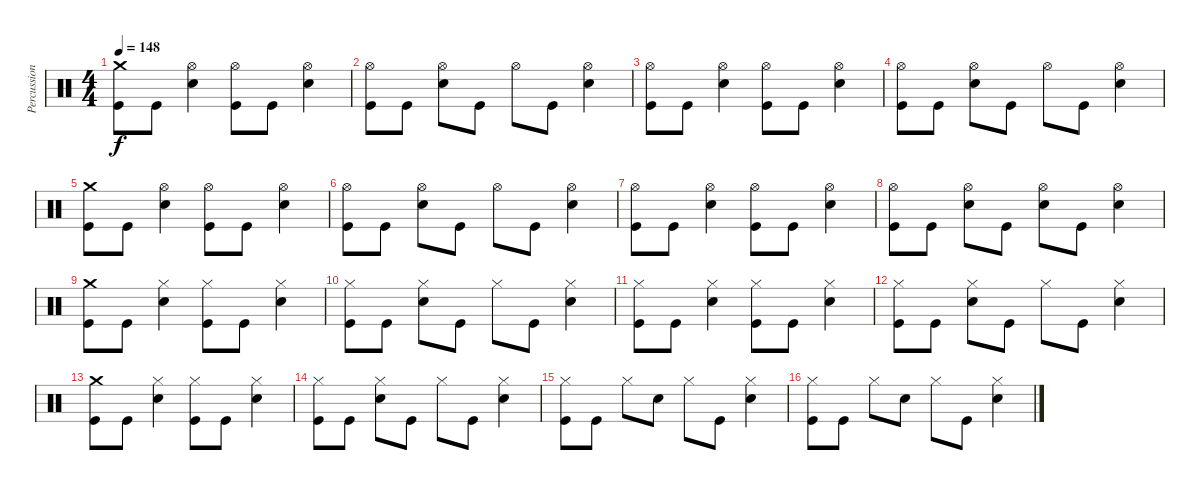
\track ("Percussion" "Percussion") {instrument percussion}
\staff {score}
\articulation defaults
\ts (4 4)
\tempo 148
\clef neutral
\ks c
("Crash medium (hit)" "Kick (hit)").8{dy f} "Kick (hit)".8 ("Hi-Hat (open)" "Electric Snare (hit)").4 ("Hi-Hat (open)" "Kick (hit)").8 "Kick (hit)".8 ("Hi-Hat (open)" "Electric Snare (hit)").4 |
("Hi-Hat (open)" "Kick (hit)").8 "Kick (hit)".8 ("Hi-Hat (open)" "Electric Snare (hit)").8 "Kick (hit)".8 "Hi-Hat (open)".8 "Kick (hit)".8 ("Hi-Hat (open)" "Electric Snare (hit)").4 |
("Hi-Hat (open)" "Kick (hit)").8 "Kick (hit)".8 ("Hi-Hat (open)" "Electric Snare (hit)").4 ("Hi-Hat (open)" "Kick (hit)").8 "Kick (hit)".8 ("Hi-Hat (open)" "Electric Snare (hit)").4 |
("Hi-Hat (open)" "Kick (hit)").8 "Kick (hit)".8 ("Hi-Hat (open)" "Electric Snare (hit)").8 "Kick (hit)".8 "Hi-Hat (open)".8 "Kick (hit)".8 ("Hi-Hat (open)" "Electric Snare (hit)").4 |
("Crash medium (hit)" "Kick (hit)").8 "Kick (hit)".8 ("Hi-Hat (open)" "Electric Snare (hit)").4 ("Hi-Hat (open)" "Kick (hit)").8 "Kick (hit)".8 ("Hi-Hat (open)" "Electric Snare (hit)").4 |
("Hi-Hat (open)" "Kick (hit)").8 "Kick (hit)".8 ("Hi-Hat (open)" "Electric Snare (hit)").8 "Kick (hit)".8 "Hi-Hat (open)".8 "Kick (hit)".8 ("Hi-Hat (open)" "Electric Snare (hit)").4 |
("Hi-Hat (open)" "Kick (hit)").8 "Kick (hit)".8 ("Hi-Hat (open)" "Electric Snare (hit)").4 ("Hi-Hat (open)" "Kick (hit)").8 "Kick (hit)".8 ("Hi-Hat (open)" "Electric Snare (hit)").4 |
("Hi-Hat (open)" "Kick (hit)").8 "Kick (hit)".8 ("Hi-Hat (open)" "Electric Snare (hit)").8 "Kick (hit)".8 ("Hi-Hat (open)" "Electric Snare (hit)").8 "Kick (hit)".8 ("Hi-Hat (open)" "Electric Snare (hit)").4 |
("Crash medium (hit)" "Kick (hit)").8 "Kick (hit)".8 ("Hi-Hat (closed)" "Electric Snare (hit)").4 ("Hi-Hat (closed)" "Kick (hit)").8 "Kick (hit)".8 ("Hi-Hat (closed)" "Electric Snare (hit)").4 |
("Hi-Hat (closed)" "Kick (hit)").8 "Kick (hit)".8 ("Hi-Hat (closed)" "Electric Snare (hit)").8 "Kick (hit)".8 "Hi-Hat (closed)".8 "Kick (hit)".8 ("Hi-Hat (closed)" "Electric Snare (hit)").4 |
("Hi-Hat (closed)" "Kick (hit)").8 "Kick (hit)".8 ("Hi-Hat (closed)" "Electric Snare (hit)").4 ("Hi-Hat (closed)" "Kick (hit)").8 "Kick (hit)".8 ("Hi-Hat (closed)" "Electric Snare (hit)").4 |
("Hi-Hat (closed)" "Kick (hit)").8 "Kick (hit)".8 ("Hi-Hat (closed)" "Electric Snare (hit)").8 "Kick (hit)".8 "Hi-Hat (closed)".8 "Kick (hit)".8 ("Hi-Hat (closed)" "Electric Snare (hit)").4 |
("Crash medium (hit)" "Kick (hit)").8 "Kick (hit)".8 ("Hi-Hat (closed)" "Electric Snare (hit)").4 ("Hi-Hat (closed)" "Kick (hit)").8 "Kick (hit)".8 ("Hi-Hat (closed)" "Electric Snare (hit)").4 |
("Hi-Hat (closed)" "Kick (hit)").8 "Kick (hit)".8 ("Hi-Hat (closed)" "Electric Snare (hit)").8 "Kick (hit)".8 "Hi-Hat (closed)".8 "Kick (hit)".8 ("Hi-Hat (closed)" "Electric Snare (hit)").4 |
("Hi-Hat (closed)" "Kick (hit)").8 "Kick (hit)".8 "Hi-Hat (closed)".8 "Electric Snare (hit)".8 "Hi-Hat (closed)".8 "Kick (hit)".8 ("Hi-Hat (closed)" "Electric Snare (hit)").4 |
("Hi-Hat (closed)" "Kick (hit)").8 "Kick (hit)".8 "Hi-Hat (closed)".8 "Electric Snare (hit)".8 "Hi-Hat (closed)".8 "Kick (hit)".8 ("Hi-Hat (closed)" "Electric Snare (hit)").4
